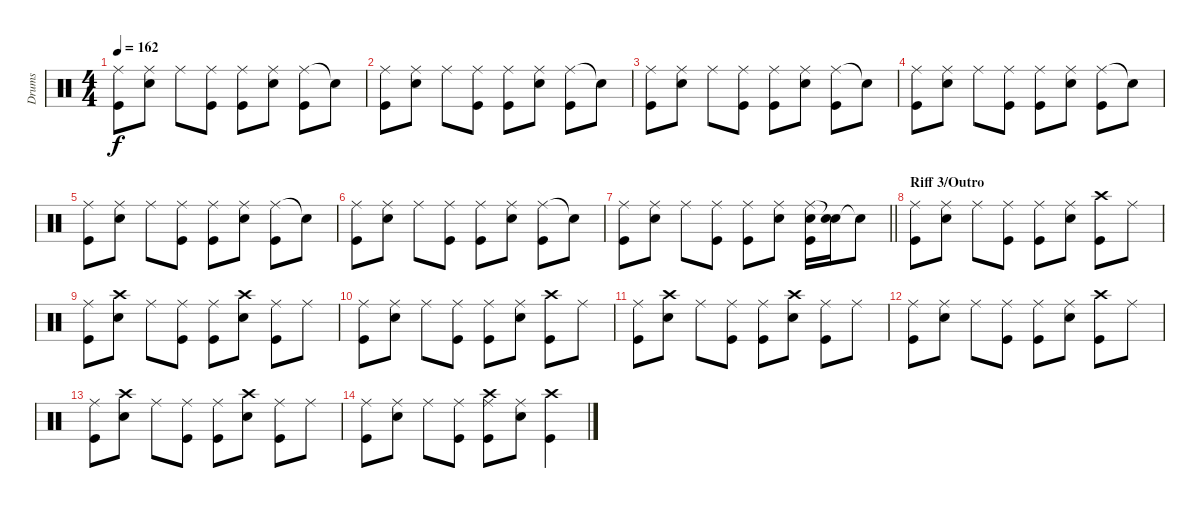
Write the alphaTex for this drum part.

\track ("Drums" "Drums") {instrument percussion}
\staff {score}
\articulation defaults
\ts (4 4)
\tempo 162
\clef neutral
\ks c
("Ride (middle)" "Kick (hit)").8{dy f} ("Ride (middle)" "Snare (hit) 2").8 "Ride (middle)".8 ("Ride (middle)" "Kick (hit)").8 ("Ride (middle)" "Kick (hit)").8 ("Ride (middle)" "Snare (hit) 2").8 ("Ride (middle)" "Kick (hit)").8 "Snare (hit)"{t}.8 |
("Ride (middle)" "Kick (hit)").8 ("Ride (middle)" "Snare (hit) 2").8 "Ride (middle)".8 ("Ride (middle)" "Kick (hit)").8 ("Ride (middle)" "Kick (hit)").8 ("Ride (middle)" "Snare (hit) 2").8 ("Ride (middle)" "Kick (hit)").8 "Snare (hit)"{t}.8 |
("Ride (middle)" "Kick (hit)").8 ("Ride (middle)" "Snare (hit) 2").8 "Ride (middle)".8 ("Ride (middle)" "Kick (hit)").8 ("Ride (middle)" "Kick (hit)").8 ("Ride (middle)" "Snare (hit) 2").8 ("Ride (middle)" "Kick (hit)").8 "Snare (hit)"{t}.8 |
("Ride (middle)" "Kick (hit)").8 ("Ride (middle)" "Snare (hit) 2").8 "Ride (middle)".8 ("Ride (middle)" "Kick (hit)").8 ("Ride (middle)" "Kick (hit)").8 ("Ride (middle)" "Snare (hit) 2").8 ("Ride (middle)" "Kick (hit)").8 "Snare (hit)"{t}.8 |
("Ride (middle)" "Kick (hit)").8 ("Ride (middle)" "Snare (hit) 2").8 "Ride (middle)".8 ("Ride (middle)" "Kick (hit)").8 ("Ride (middle)" "Kick (hit)").8 ("Ride (middle)" "Snare (hit) 2").8 ("Ride (middle)" "Kick (hit)").8 "Snare (hit)"{t}.8 |
("Ride (middle)" "Kick (hit)").8 ("Ride (middle)" "Snare (hit) 2").8 "Ride (middle)".8 ("Ride (middle)" "Kick (hit)").8 ("Ride (middle)" "Kick (hit)").8 ("Ride (middle)" "Snare (hit) 2").8 ("Ride (middle)" "Kick (hit)").8 "Snare (hit)"{t}.8 |
\barLineRight lightlight
("Ride (middle)" "Kick (hit)").8 ("Ride (middle)" "Snare (hit) 2").8 "Ride (middle)".8 ("Ride (middle)" "Kick (hit)").8 ("Ride (middle)" "Kick (hit)").8 ("Ride (middle)" "Snare (hit) 2").8 ("Ride (middle)" "Snare (hit) 2" "Kick (hit)").16 ("Snare (hit)"{t} "Snare (hit) 2").16 "Snare (hit)"{t}.8 |
\section ("" "Riff 3/Outro")
("Ride (middle)" "Kick (hit)").8 ("Ride (middle)" "Snare (hit) 2").8 "Ride (middle)".8 ("Ride (middle)" "Kick (hit)").8 ("Ride (middle)" "Kick (hit)").8 ("Ride (middle)" "Snare (hit) 2").8 ("Crash high (hit)" "Kick (hit)").8 "Ride (middle)".8 |
("Ride (middle)" "Kick (hit)").8 ("Crash high (hit)" "Snare (hit) 2").8 "Ride (middle)".8 ("Ride (middle)" "Kick (hit)").8 ("Ride (middle)" "Kick (hit)").8 ("Crash high (hit)" "Snare (hit) 2").8 ("Ride (middle)" "Kick (hit)").8 "Ride (middle)".8 |
("Ride (middle)" "Kick (hit)").8 ("Ride (middle)" "Snare (hit) 2").8 "Ride (middle)".8 ("Ride (middle)" "Kick (hit)").8 ("Ride (middle)" "Kick (hit)").8 ("Ride (middle)" "Snare (hit) 2").8 ("Crash high (hit)" "Kick (hit)").8 "Ride (middle)".8 |
("Ride (middle)" "Kick (hit)").8 ("Crash high (hit)" "Snare (hit) 2").8 "Ride (middle)".8 ("Ride (middle)" "Kick (hit)").8 ("Ride (middle)" "Kick (hit)").8 ("Crash high (hit)" "Snare (hit) 2").8 ("Ride (middle)" "Kick (hit)").8 "Ride (middle)".8 |
("Ride (middle)" "Kick (hit)").8 ("Ride (middle)" "Snare (hit) 2").8 "Ride (middle)".8 ("Ride (middle)" "Kick (hit)").8 ("Ride (middle)" "Kick (hit)").8 ("Ride (middle)" "Snare (hit) 2").8 ("Crash high (hit)" "Kick (hit)").8 "Ride (middle)".8 |
("Ride (middle)" "Kick (hit)").8 ("Crash high (hit)" "Snare (hit) 2").8 "Ride (middle)".8 ("Ride (middle)" "Kick (hit)").8 ("Ride (middle)" "Kick (hit)").8 ("Crash high (hit)" "Snare (hit) 2").8 ("Ride (middle)" "Kick (hit)").8 "Ride (middle)".8 |
("Ride (middle)" "Kick (hit)").8 ("Ride (middle)" "Snare (hit) 2").8 "Ride (middle)".8 ("Ride (middle)" "Kick (hit)").8 ("Crash high (hit)" "Ride (middle)" "Kick (hit)").8 ("Ride (middle)" "Snare (hit) 2").8 ("Crash high (hit)" "Kick (hit)").4
